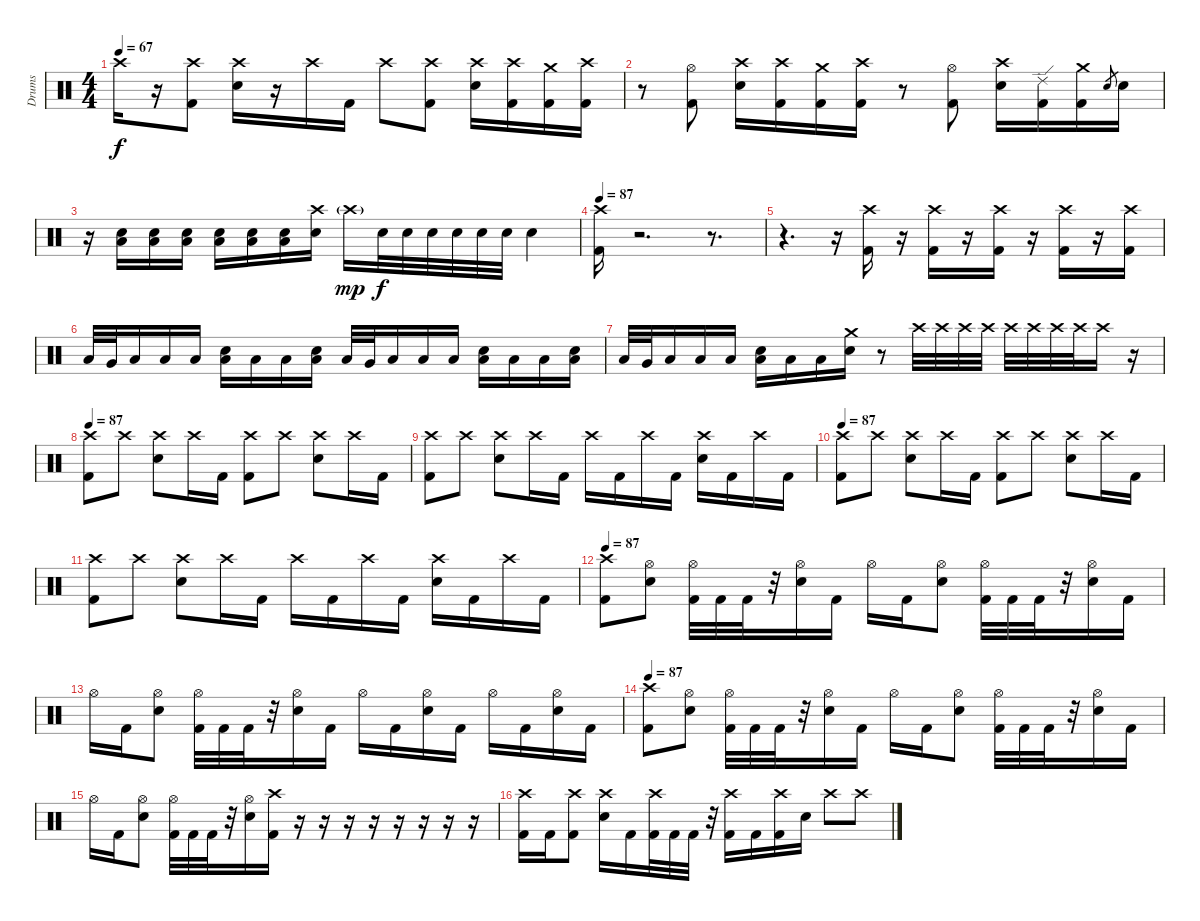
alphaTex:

\track ("Drums" "Drums") {instrument percussion}
\staff {score}
\articulation defaults
\ts (4 4)
\tempo 67
\clef neutral
\ks c "Crash high (hit)".16{dy f}
r.16 ("Crash high (hit)" "Kick (hit) 2").8 ("Crash high (hit)" "Snare (hit) 2").16 r.16 "Crash high (hit)".16 "Kick (hit) 2".16 "Crash high (hit)".8 ("Crash high (hit)" "Kick (hit) 2").8 ("Crash high (hit)" "Snare (hit) 2").16 ("Crash high (hit)" "Kick (hit) 2").16 ("Crash medium (hit)" "Kick (hit) 2").16 ("Crash high (hit)" "Kick (hit) 2").16 |
r.8 ("Hi-Hat (open)" "Kick (hit) 2").8 ("Crash high (hit)" "Snare (hit) 2").16 ("Crash high (hit)" "Kick (hit) 2").16 ("Crash medium (hit)" "Kick (hit) 2").16 ("Crash high (hit)" "Kick (hit) 2").16 r.8 ("Hi-Hat (open)" "Kick (hit) 2").8 ("Crash high (hit)" "Snare (hit) 2").16 ("Ride (edge) 2" "Kick (hit) 2").16 ("Crash medium (hit)" "Kick (hit) 2").16 "Snare (hit) 2".8{gr} "Snare (hit) 2".16 |
r.16 ("Low Floor Tom (hit)" "Snare (hit) 2").16 ("Low Floor Tom (hit)" "Snare (hit) 2").16 ("Low Floor Tom (hit)" "Snare (hit) 2").16 ("Low Floor Tom (hit)" "Snare (hit) 2").16 ("Low Floor Tom (hit)" "Snare (hit) 2").16 ("Low Floor Tom (hit)" "Snare (hit) 2").16 ("Crash high (hit)" "Snare (hit) 2").16 "Crash high (hit)"{g}.16{dy mp volume 0} "Snare (hit) 2".32{dy f volume 16} "Snare (hit) 2".32 "Snare (hit) 2".32 "Snare (hit) 2".32 "Snare (hit) 2".32 "Snare (hit) 2".32 "Snare (hit) 2".4 |
\tempo 87
("Crash high (hit)" "Kick (hit) 2").16 r.2{d volume 0} r.8{d volume 16} |
r.4{d} r.16 ("Crash high (hit)" "Kick (hit) 2").16 r.16{volume 0} ("Crash high (hit)" "Kick (hit) 2").16{volume 16} r.16{volume 0} ("Crash high (hit)" "Kick (hit) 2").16{volume 16} r.16{volume 0} ("Crash high (hit)" "Kick (hit) 2").16{volume 16} r.16{volume 0} ("Crash high (hit)" "Kick (hit) 2").16{volume 16} |
"Low Tom (hit)".32 "Very Low Tom (hit)".32 "Low Floor Tom (hit)".16 "Low Floor Tom (hit)".16 "Low Floor Tom (hit)".16 ("Low Floor Tom (hit)" "Snare (hit) 2").16 "Low Floor Tom (hit)".16 "Low Floor Tom (hit)".16 ("Low Floor Tom (hit)" "Snare (hit) 2").16 "Low Tom (hit)".32 "Very Low Tom (hit)".32 "Low Floor Tom (hit)".16 "Low Floor Tom (hit)".16 "Low Floor Tom (hit)".16 ("Low Floor Tom (hit)" "Snare (hit) 2").16 "Low Floor Tom (hit)".16 "Low Floor Tom (hit)".16 ("Low Floor Tom (hit)" "Snare (hit) 2").16 |
"Low Tom (hit)".32 "Very Low Tom (hit)".32 "Low Floor Tom (hit)".16 "Low Floor Tom (hit)".16 "Low Floor Tom (hit)".16 ("Low Floor Tom (hit)" "Snare (hit) 2").16 "Low Floor Tom (hit)".16 "Low Floor Tom (hit)".16 ("Crash medium (hit)" "Snare (hit) 2").16 r.8{volume 0} "Crash high (hit)".32{volume 16} "Crash high (hit)".32 "Crash high (hit)".32 "Crash high (hit)".32 "Crash high (hit)".32 "Crash high (hit)".32 "Crash high (hit)".32 "Crash high (hit)".32 "Crash high (hit)".16{volume 0} r.16 |
\tempo 87
("Crash high (hit)" "Kick (hit) 2").8{volume 16} "Crash high (hit)".8 ("Crash high (hit)" "Snare (hit) 2").8 "Crash high (hit)".16 "Kick (hit) 2".16 ("Crash high (hit)" "Kick (hit) 2").8 "Crash high (hit)".8 ("Crash high (hit)" "Snare (hit) 2").8 "Crash high (hit)".16 "Kick (hit) 2".16 |
("Crash high (hit)" "Kick (hit) 2").8 "Crash high (hit)".8 ("Crash high (hit)" "Snare (hit) 2").8 "Crash high (hit)".16 "Kick (hit) 2".16 "Crash high (hit)".16 "Kick (hit) 2".16 "Crash high (hit)".16 "Kick (hit) 2".16 ("Crash high (hit)" "Snare (hit) 2").16 "Kick (hit) 2".16 "Crash high (hit)".16 "Kick (hit) 2".16 |
\tempo 87
("Crash high (hit)" "Kick (hit) 2").8{volume 16} "Crash high (hit)".8 ("Crash high (hit)" "Snare (hit) 2").8 "Crash high (hit)".16 "Kick (hit) 2".16 ("Crash high (hit)" "Kick (hit) 2").8 "Crash high (hit)".8 ("Crash high (hit)" "Snare (hit) 2").8 "Crash high (hit)".16 "Kick (hit) 2".16 |
("Crash high (hit)" "Kick (hit) 2").8 "Crash high (hit)".8 ("Crash high (hit)" "Snare (hit) 2").8 "Crash high (hit)".16 "Kick (hit) 2".16 "Crash high (hit)".16 "Kick (hit) 2".16 "Crash high (hit)".16 "Kick (hit) 2".16 ("Crash high (hit)" "Snare (hit) 2").16 "Kick (hit) 2".16 "Crash high (hit)".16 "Kick (hit) 2".16 |
\tempo 87
("Crash high (hit)" "Kick (hit) 2").8 ("Hi-Hat (open)" "Snare (hit) 2").8 ("Hi-Hat (open)" "Kick (hit) 2").32 "Kick (hit) 2".32 "Kick (hit) 2".32 r.32 ("Hi-Hat (open)" "Snare (hit) 2").16 "Kick (hit) 2".16 "Hi-Hat (open)".16 "Kick (hit) 2".16 ("Hi-Hat (open)" "Snare (hit) 2").8 ("Hi-Hat (open)" "Kick (hit) 2").32 "Kick (hit) 2".32 "Kick (hit) 2".32 r.32 ("Hi-Hat (open)" "Snare (hit) 2").16 "Kick (hit) 2".16 |
"Hi-Hat (open)".16 "Kick (hit) 2".16 ("Hi-Hat (open)" "Snare (hit) 2").8 ("Hi-Hat (open)" "Kick (hit) 2").32 "Kick (hit) 2".32 "Kick (hit) 2".32 r.32 ("Hi-Hat (open)" "Snare (hit) 2").16 "Kick (hit) 2".16 "Hi-Hat (open)".16 "Kick (hit) 2".16 ("Hi-Hat (open)" "Snare (hit) 2").16 "Kick (hit) 2".16 "Hi-Hat (open)".16 "Kick (hit) 2".16 ("Hi-Hat (open)" "Snare (hit) 2").16 "Kick (hit) 2".16 |
\tempo 87
("Crash high (hit)" "Kick (hit) 2").8 ("Hi-Hat (open)" "Snare (hit) 2").8 ("Hi-Hat (open)" "Kick (hit) 2").32 "Kick (hit) 2".32 "Kick (hit) 2".32 r.32 ("Hi-Hat (open)" "Snare (hit) 2").16 "Kick (hit) 2".16 "Hi-Hat (open)".16 "Kick (hit) 2".16 ("Hi-Hat (open)" "Snare (hit) 2").8 ("Hi-Hat (open)" "Kick (hit) 2").32 "Kick (hit) 2".32 "Kick (hit) 2".32 r.32 ("Hi-Hat (open)" "Snare (hit) 2").16 "Kick (hit) 2".16 |
"Hi-Hat (open)".16 "Kick (hit) 2".16 ("Hi-Hat (open)" "Snare (hit) 2").8 ("Hi-Hat (open)" "Kick (hit) 2").32 "Kick (hit) 2".32 "Kick (hit) 2".32 r.32 ("Hi-Hat (open)" "Snare (hit) 2").16 ("Crash high (hit)" "Kick (hit) 2").16 r.16{volume 0} r.16 r.16 r.16 r.16 r.16 r.16 r.16 |
("Crash high (hit)" "Kick (hit) 2").16{volume 16} "Kick (hit) 2".16 ("Crash high (hit)" "Kick (hit) 2").8 ("Crash high (hit)" "Snare (hit) 2").16 "Kick (hit) 2".16 ("Crash high (hit)" "Kick (hit) 2").32 "Kick (hit) 2".32 "Kick (hit) 2".32 r.32 ("Crash high (hit)" "Kick (hit) 2").16 "Kick (hit) 2".16 ("Crash high (hit)" "Kick (hit) 2").16 "Snare (hit) 2".16 "Crash high (hit)".8 "Crash high (hit)".8
